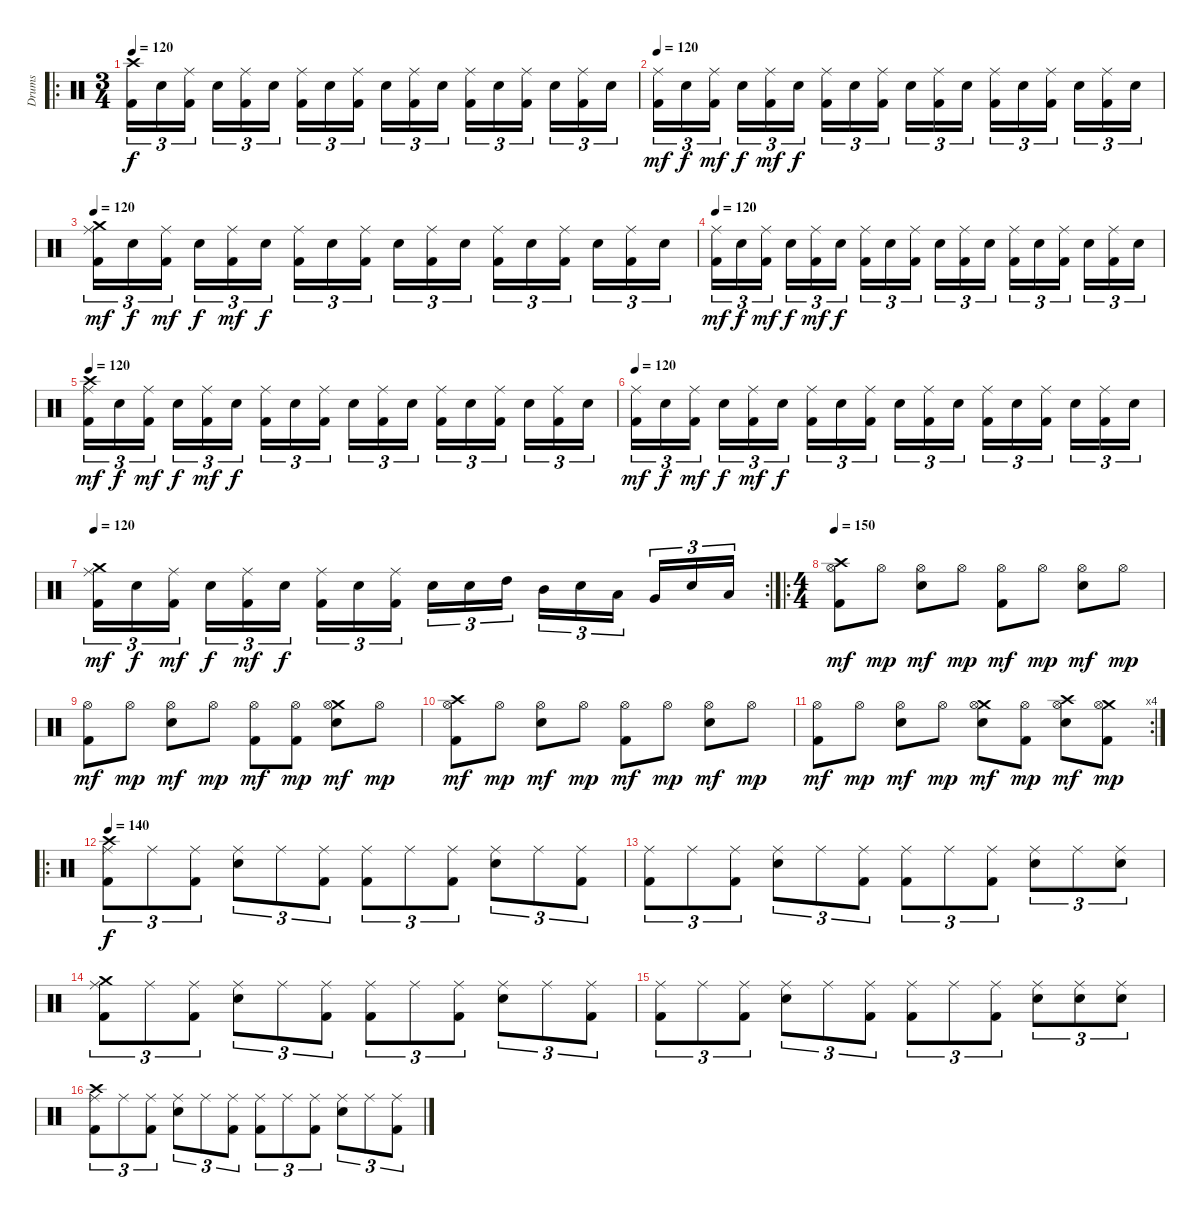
\track ("Drums" "Drums") {instrument percussion}
\staff {score}
\articulation defaults
\ro
\ts (3 4)
\tempo 120
\clef neutral
\ks c
("Crash high (hit)" "Kick (hit) 2").16{tu (3 2) dy f} "Electric Snare (hit)".16{tu (3 2)} ("Ride (middle)" "Kick (hit) 2").16{tu (3 2)} "Electric Snare (hit)".16{tu (3 2)} ("Ride (middle)" "Kick (hit) 2").16{tu (3 2)} "Electric Snare (hit)".16{tu (3 2)} ("Ride (middle)" "Kick (hit) 2").16{tu (3 2)} "Electric Snare (hit)".16{tu (3 2)} ("Ride (middle)" "Kick (hit) 2").16{tu (3 2)} "Electric Snare (hit)".16{tu (3 2)} ("Ride (middle)" "Kick (hit) 2").16{tu (3 2)} "Electric Snare (hit)".16{tu (3 2)} ("Ride (middle)" "Kick (hit) 2").16{tu (3 2)} "Electric Snare (hit)".16{tu (3 2)} ("Ride (middle)" "Kick (hit) 2").16{tu (3 2)} "Electric Snare (hit)".16{tu (3 2)} ("Ride (middle)" "Kick (hit) 2").16{tu (3 2)} "Electric Snare (hit)".16{tu (3 2)} |
\tempo 120
("Ride (middle)" "Kick (hit) 2").16{tu (3 2) dy mf} "Electric Snare (hit)".16{tu (3 2) dy f} ("Ride (middle)" "Kick (hit) 2").16{tu (3 2) dy mf} "Electric Snare (hit)".16{tu (3 2) dy f} ("Ride (middle)" "Kick (hit) 2").16{tu (3 2) dy mf} "Electric Snare (hit)".16{tu (3 2) dy f} ("Ride (middle)" "Kick (hit) 2").16{tu (3 2)} "Electric Snare (hit)".16{tu (3 2)} ("Ride (middle)" "Kick (hit) 2").16{tu (3 2)} "Electric Snare (hit)".16{tu (3 2)} ("Ride (middle)" "Kick (hit) 2").16{tu (3 2)} "Electric Snare (hit)".16{tu (3 2)} ("Ride (middle)" "Kick (hit) 2").16{tu (3 2)} "Electric Snare (hit)".16{tu (3 2)} ("Ride (middle)" "Kick (hit) 2").16{tu (3 2)} "Electric Snare (hit)".16{tu (3 2)} ("Ride (middle)" "Kick (hit) 2").16{tu (3 2)} "Electric Snare (hit)".16{tu (3 2)} |
\tempo 120
("Crash medium (hit)" "Ride (middle)" "Kick (hit) 2").16{tu (3 2) dy mf} "Electric Snare (hit)".16{tu (3 2) dy f} ("Ride (middle)" "Kick (hit) 2").16{tu (3 2) dy mf} "Electric Snare (hit)".16{tu (3 2) dy f} ("Ride (middle)" "Kick (hit) 2").16{tu (3 2) dy mf} "Electric Snare (hit)".16{tu (3 2) dy f} ("Ride (middle)" "Kick (hit) 2").16{tu (3 2)} "Electric Snare (hit)".16{tu (3 2)} ("Ride (middle)" "Kick (hit) 2").16{tu (3 2)} "Electric Snare (hit)".16{tu (3 2)} ("Ride (middle)" "Kick (hit) 2").16{tu (3 2)} "Electric Snare (hit)".16{tu (3 2)} ("Ride (middle)" "Kick (hit) 2").16{tu (3 2)} "Electric Snare (hit)".16{tu (3 2)} ("Ride (middle)" "Kick (hit) 2").16{tu (3 2)} "Electric Snare (hit)".16{tu (3 2)} ("Ride (middle)" "Kick (hit) 2").16{tu (3 2)} "Electric Snare (hit)".16{tu (3 2)} |
\tempo 120
("Ride (middle)" "Kick (hit) 2").16{tu (3 2) dy mf} "Electric Snare (hit)".16{tu (3 2) dy f} ("Ride (middle)" "Kick (hit) 2").16{tu (3 2) dy mf} "Electric Snare (hit)".16{tu (3 2) dy f} ("Ride (middle)" "Kick (hit) 2").16{tu (3 2) dy mf} "Electric Snare (hit)".16{tu (3 2) dy f} ("Ride (middle)" "Kick (hit) 2").16{tu (3 2)} "Electric Snare (hit)".16{tu (3 2)} ("Ride (middle)" "Kick (hit) 2").16{tu (3 2)} "Electric Snare (hit)".16{tu (3 2)} ("Ride (middle)" "Kick (hit) 2").16{tu (3 2)} "Electric Snare (hit)".16{tu (3 2)} ("Ride (middle)" "Kick (hit) 2").16{tu (3 2)} "Electric Snare (hit)".16{tu (3 2)} ("Ride (middle)" "Kick (hit) 2").16{tu (3 2)} "Electric Snare (hit)".16{tu (3 2)} ("Ride (middle)" "Kick (hit) 2").16{tu (3 2)} "Electric Snare (hit)".16{tu (3 2)} |
\tempo 120
("Crash high (hit)" "Ride (middle)" "Kick (hit) 2").16{tu (3 2) dy mf} "Electric Snare (hit)".16{tu (3 2) dy f} ("Ride (middle)" "Kick (hit) 2").16{tu (3 2) dy mf} "Electric Snare (hit)".16{tu (3 2) dy f} ("Ride (middle)" "Kick (hit) 2").16{tu (3 2) dy mf} "Electric Snare (hit)".16{tu (3 2) dy f} ("Ride (middle)" "Kick (hit) 2").16{tu (3 2)} "Electric Snare (hit)".16{tu (3 2)} ("Ride (middle)" "Kick (hit) 2").16{tu (3 2)} "Electric Snare (hit)".16{tu (3 2)} ("Ride (middle)" "Kick (hit) 2").16{tu (3 2)} "Electric Snare (hit)".16{tu (3 2)} ("Ride (middle)" "Kick (hit) 2").16{tu (3 2)} "Electric Snare (hit)".16{tu (3 2)} ("Ride (middle)" "Kick (hit) 2").16{tu (3 2)} "Electric Snare (hit)".16{tu (3 2)} ("Ride (middle)" "Kick (hit) 2").16{tu (3 2)} "Electric Snare (hit)".16{tu (3 2)} |
\tempo 120
("Ride (middle)" "Kick (hit) 2").16{tu (3 2) dy mf} "Electric Snare (hit)".16{tu (3 2) dy f} ("Ride (middle)" "Kick (hit) 2").16{tu (3 2) dy mf} "Electric Snare (hit)".16{tu (3 2) dy f} ("Ride (middle)" "Kick (hit) 2").16{tu (3 2) dy mf} "Electric Snare (hit)".16{tu (3 2) dy f} ("Ride (middle)" "Kick (hit) 2").16{tu (3 2)} "Electric Snare (hit)".16{tu (3 2)} ("Ride (middle)" "Kick (hit) 2").16{tu (3 2)} "Electric Snare (hit)".16{tu (3 2)} ("Ride (middle)" "Kick (hit) 2").16{tu (3 2)} "Electric Snare (hit)".16{tu (3 2)} ("Ride (middle)" "Kick (hit) 2").16{tu (3 2)} "Electric Snare (hit)".16{tu (3 2)} ("Ride (middle)" "Kick (hit) 2").16{tu (3 2)} "Electric Snare (hit)".16{tu (3 2)} ("Ride (middle)" "Kick (hit) 2").16{tu (3 2)} "Electric Snare (hit)".16{tu (3 2)} |
\rc 2
\tempo 120
("Crash medium (hit)" "Ride (middle)" "Kick (hit) 2").16{tu (3 2) dy mf} "Electric Snare (hit)".16{tu (3 2) dy f} ("Ride (middle)" "Kick (hit) 2").16{tu (3 2) dy mf} "Electric Snare (hit)".16{tu (3 2) dy f} ("Ride (middle)" "Kick (hit) 2").16{tu (3 2) dy mf} "Electric Snare (hit)".16{tu (3 2) dy f} ("Ride (middle)" "Kick (hit) 2").16{tu (3 2)} "Electric Snare (hit)".16{tu (3 2)} ("Ride (middle)" "Kick (hit) 2").16{tu (3 2)} "Electric Snare (hit)".16{tu (3 2)} "Electric Snare (hit)".16{tu (3 2)} "High Tom (hit)".16{tu (3 2)} "Mid Tom (hit)".16{tu (3 2)} "Electric Snare (hit)".16{tu (3 2)} "Low Tom (hit)".16{tu (3 2)} "Very Low Tom (hit)".16{tu (3 2)} "Electric Snare (hit)".16{tu (3 2)} "Low Tom (hit)".16{tu (3 2)} |
\ro
\ts (4 4)
\tempo 150
("Crash high (hit)" "Hi-Hat (open)" "Kick (hit) 2").8{dy mf} "Hi-Hat (open)".8{dy mp} ("Hi-Hat (open)" "Electric Snare (hit)").8{dy mf} "Hi-Hat (open)".8{dy mp} ("Hi-Hat (open)" "Kick (hit) 2").8{dy mf} "Hi-Hat (open)".8{dy mp} ("Hi-Hat (open)" "Electric Snare (hit)").8{dy mf} "Hi-Hat (open)".8{dy mp} |
("Hi-Hat (open)" "Kick (hit) 2").8{dy mf} "Hi-Hat (open)".8{dy mp} ("Hi-Hat (open)" "Electric Snare (hit)").8{dy mf} "Hi-Hat (open)".8{dy mp} ("Hi-Hat (open)" "Kick (hit) 2").8{dy mf} ("Hi-Hat (open)" "Kick (hit) 2").8{dy mp} ("Crash medium (hit)" "Hi-Hat (open)" "Electric Snare (hit)").8{dy mf} "Hi-Hat (open)".8{dy mp} |
("Crash high (hit)" "Hi-Hat (open)" "Kick (hit) 2").8{dy mf} "Hi-Hat (open)".8{dy mp} ("Hi-Hat (open)" "Electric Snare (hit)").8{dy mf} "Hi-Hat (open)".8{dy mp} ("Hi-Hat (open)" "Kick (hit) 2").8{dy mf} "Hi-Hat (open)".8{dy mp} ("Hi-Hat (open)" "Electric Snare (hit)").8{dy mf} "Hi-Hat (open)".8{dy mp} |
\rc 4
("Hi-Hat (open)" "Kick (hit) 2").8{dy mf} "Hi-Hat (open)".8{dy mp} ("Hi-Hat (open)" "Electric Snare (hit)").8{dy mf} "Hi-Hat (open)".8{dy mp} ("Crash medium (hit)" "Hi-Hat (open)" "Electric Snare (hit)").8{dy mf} ("Hi-Hat (open)" "Kick (hit) 2").8{dy mp} ("Crash high (hit)" "Hi-Hat (open)" "Electric Snare (hit)").8{dy mf} ("Crash medium (hit)" "Hi-Hat (open)" "Kick (hit) 2").8{dy mp} |
\ro
\tempo 140
("Crash high (hit)" "Ride (middle)" "Kick (hit) 2").8{tu (3 2) dy f} "Ride (middle)".8{tu (3 2)} ("Ride (middle)" "Kick (hit) 2").8{tu (3 2)} ("Ride (middle)" "Electric Snare (hit)").8{tu (3 2)} "Ride (middle)".8{tu (3 2)} ("Ride (middle)" "Kick (hit) 2").8{tu (3 2)} ("Ride (middle)" "Kick (hit) 2").8{tu (3 2)} "Ride (middle)".8{tu (3 2)} ("Ride (middle)" "Kick (hit) 2").8{tu (3 2)} ("Ride (middle)" "Electric Snare (hit)").8{tu (3 2)} "Ride (middle)".8{tu (3 2)} ("Ride (middle)" "Kick (hit) 2").8{tu (3 2)} |
("Ride (middle)" "Kick (hit) 2").8{tu (3 2)} "Ride (middle)".8{tu (3 2)} ("Ride (middle)" "Kick (hit) 2").8{tu (3 2)} ("Ride (middle)" "Electric Snare (hit)").8{tu (3 2)} "Ride (middle)".8{tu (3 2)} ("Ride (middle)" "Kick (hit) 2").8{tu (3 2)} ("Ride (middle)" "Kick (hit) 2").8{tu (3 2)} "Ride (middle)".8{tu (3 2)} ("Ride (middle)" "Kick (hit) 2").8{tu (3 2)} ("Ride (middle)" "Electric Snare (hit)").8{tu (3 2)} "Ride (middle)".8{tu (3 2)} ("Ride (middle)" "Electric Snare (hit)").8{tu (3 2)} |
("Crash medium (hit)" "Ride (middle)" "Kick (hit) 2").8{tu (3 2)} "Ride (middle)".8{tu (3 2)} ("Ride (middle)" "Kick (hit) 2").8{tu (3 2)} ("Ride (middle)" "Electric Snare (hit)").8{tu (3 2)} "Ride (middle)".8{tu (3 2)} ("Ride (middle)" "Kick (hit) 2").8{tu (3 2)} ("Ride (middle)" "Kick (hit) 2").8{tu (3 2)} "Ride (middle)".8{tu (3 2)} ("Ride (middle)" "Kick (hit) 2").8{tu (3 2)} ("Ride (middle)" "Electric Snare (hit)").8{tu (3 2)} "Ride (middle)".8{tu (3 2)} ("Ride (middle)" "Kick (hit) 2").8{tu (3 2)} |
("Ride (middle)" "Kick (hit) 2").8{tu (3 2)} "Ride (middle)".8{tu (3 2)} ("Ride (middle)" "Kick (hit) 2").8{tu (3 2)} ("Ride (middle)" "Electric Snare (hit)").8{tu (3 2)} "Ride (middle)".8{tu (3 2)} ("Ride (middle)" "Kick (hit) 2").8{tu (3 2)} ("Ride (middle)" "Kick (hit) 2").8{tu (3 2)} "Ride (middle)".8{tu (3 2)} ("Ride (middle)" "Kick (hit) 2").8{tu (3 2)} ("Ride (middle)" "Electric Snare (hit)").8{tu (3 2)} ("Ride (middle)" "Electric Snare (hit)").8{tu (3 2)} ("Ride (middle)" "Electric Snare (hit)").8{tu (3 2)} |
("Crash high (hit)" "Ride (middle)" "Kick (hit) 2").8{tu (3 2)} "Ride (middle)".8{tu (3 2)} ("Ride (middle)" "Kick (hit) 2").8{tu (3 2)} ("Ride (middle)" "Electric Snare (hit)").8{tu (3 2)} "Ride (middle)".8{tu (3 2)} ("Ride (middle)" "Kick (hit) 2").8{tu (3 2)} ("Ride (middle)" "Kick (hit) 2").8{tu (3 2)} "Ride (middle)".8{tu (3 2)} ("Ride (middle)" "Kick (hit) 2").8{tu (3 2)} ("Ride (middle)" "Electric Snare (hit)").8{tu (3 2)} "Ride (middle)".8{tu (3 2)} ("Ride (middle)" "Kick (hit) 2").8{tu (3 2)}
